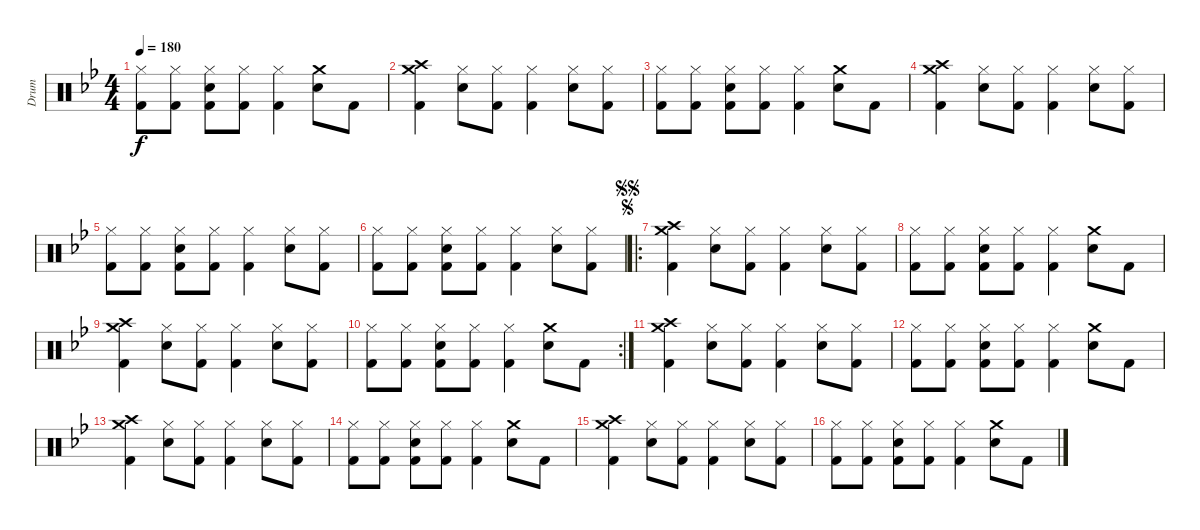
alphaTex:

\track ("Drum" "Drum") {instrument percussion}
\staff {score}
\articulation defaults
\ts (4 4)
\tempo 180
\clef neutral
\ks bb
("Hi-Hat (closed)" "Kick (hit) 2").8{dy f} ("Hi-Hat (closed)" "Kick (hit) 2").8 ("Hi-Hat (closed)" "Kick (hit) 2" "Electric Snare (hit)").8 ("Hi-Hat (closed)" "Kick (hit) 2").8 ("Hi-Hat (closed)" "Kick (hit) 2").4 ("Crash medium (hit)" "Electric Snare (hit)").8 "Kick (hit) 2".8 |
("Crash medium (hit)" "Crash high (hit)" "Kick (hit) 2").4 ("Hi-Hat (closed)" "Electric Snare (hit)").8 ("Hi-Hat (closed)" "Kick (hit) 2").8 ("Hi-Hat (closed)" "Kick (hit) 2").4 ("Hi-Hat (closed)" "Electric Snare (hit)").8 ("Hi-Hat (closed)" "Kick (hit) 2").8 |
("Hi-Hat (closed)" "Kick (hit) 2").8 ("Hi-Hat (closed)" "Kick (hit) 2").8 ("Hi-Hat (closed)" "Kick (hit) 2" "Electric Snare (hit)").8 ("Hi-Hat (closed)" "Kick (hit) 2").8 ("Hi-Hat (closed)" "Kick (hit) 2").4 ("Crash medium (hit)" "Electric Snare (hit)").8 "Kick (hit) 2".8 |
("Crash medium (hit)" "Crash high (hit)" "Kick (hit) 2").4 ("Hi-Hat (closed)" "Electric Snare (hit)").8 ("Hi-Hat (closed)" "Kick (hit) 2").8 ("Hi-Hat (closed)" "Kick (hit) 2").4 ("Hi-Hat (closed)" "Electric Snare (hit)").8 ("Hi-Hat (closed)" "Kick (hit) 2").8 |
("Hi-Hat (closed)" "Kick (hit) 2").8 ("Hi-Hat (closed)" "Kick (hit) 2").8 ("Hi-Hat (closed)" "Kick (hit) 2" "Electric Snare (hit)").8 ("Hi-Hat (closed)" "Kick (hit) 2").8 ("Hi-Hat (closed)" "Kick (hit) 2").4 ("Hi-Hat (closed)" "Electric Snare (hit)").8 ("Hi-Hat (closed)" "Kick (hit) 2").8 |
("Hi-Hat (closed)" "Kick (hit) 2").8 ("Hi-Hat (closed)" "Kick (hit) 2").8 ("Hi-Hat (closed)" "Kick (hit) 2" "Electric Snare (hit)").8 ("Hi-Hat (closed)" "Kick (hit) 2").8 ("Hi-Hat (closed)" "Kick (hit) 2").4 ("Hi-Hat (closed)" "Electric Snare (hit)").8 ("Hi-Hat (closed)" "Kick (hit) 2").8 |
\ro
\jump segno
\jump segnosegno
("Crash medium (hit)" "Crash high (hit)" "Kick (hit) 2").4 ("Hi-Hat (closed)" "Electric Snare (hit)").8 ("Hi-Hat (closed)" "Kick (hit) 2").8 ("Hi-Hat (closed)" "Kick (hit) 2").4 ("Hi-Hat (closed)" "Electric Snare (hit)").8 ("Hi-Hat (closed)" "Kick (hit) 2").8 |
("Hi-Hat (closed)" "Kick (hit) 2").8 ("Hi-Hat (closed)" "Kick (hit) 2").8 ("Hi-Hat (closed)" "Kick (hit) 2" "Electric Snare (hit)").8 ("Hi-Hat (closed)" "Kick (hit) 2").8 ("Hi-Hat (closed)" "Kick (hit) 2").4 ("Crash medium (hit)" "Electric Snare (hit)").8 "Kick (hit) 2".8 |
("Crash medium (hit)" "Crash high (hit)" "Kick (hit) 2").4 ("Hi-Hat (closed)" "Electric Snare (hit)").8 ("Hi-Hat (closed)" "Kick (hit) 2").8 ("Hi-Hat (closed)" "Kick (hit) 2").4 ("Hi-Hat (closed)" "Electric Snare (hit)").8 ("Hi-Hat (closed)" "Kick (hit) 2").8 |
\rc 2
("Hi-Hat (closed)" "Kick (hit) 2").8 ("Hi-Hat (closed)" "Kick (hit) 2").8 ("Hi-Hat (closed)" "Kick (hit) 2" "Electric Snare (hit)").8 ("Hi-Hat (closed)" "Kick (hit) 2").8 ("Hi-Hat (closed)" "Kick (hit) 2").4 ("Crash medium (hit)" "Electric Snare (hit)").8 "Kick (hit) 2".8 |
("Crash medium (hit)" "Crash high (hit)" "Kick (hit) 2").4 ("Hi-Hat (closed)" "Electric Snare (hit)").8 ("Hi-Hat (closed)" "Kick (hit) 2").8 ("Hi-Hat (closed)" "Kick (hit) 2").4 ("Hi-Hat (closed)" "Electric Snare (hit)").8 ("Hi-Hat (closed)" "Kick (hit) 2").8 |
("Hi-Hat (closed)" "Kick (hit) 2").8 ("Hi-Hat (closed)" "Kick (hit) 2").8 ("Hi-Hat (closed)" "Kick (hit) 2" "Electric Snare (hit)").8 ("Hi-Hat (closed)" "Kick (hit) 2").8 ("Hi-Hat (closed)" "Kick (hit) 2").4 ("Crash medium (hit)" "Electric Snare (hit)").8 "Kick (hit) 2".8 |
("Crash medium (hit)" "Crash high (hit)" "Kick (hit) 2").4 ("Hi-Hat (closed)" "Electric Snare (hit)").8 ("Hi-Hat (closed)" "Kick (hit) 2").8 ("Hi-Hat (closed)" "Kick (hit) 2").4 ("Hi-Hat (closed)" "Electric Snare (hit)").8 ("Hi-Hat (closed)" "Kick (hit) 2").8 |
("Hi-Hat (closed)" "Kick (hit) 2").8 ("Hi-Hat (closed)" "Kick (hit) 2").8 ("Hi-Hat (closed)" "Kick (hit) 2" "Electric Snare (hit)").8 ("Hi-Hat (closed)" "Kick (hit) 2").8 ("Hi-Hat (closed)" "Kick (hit) 2").4 ("Crash medium (hit)" "Electric Snare (hit)").8 "Kick (hit) 2".8 |
("Crash medium (hit)" "Crash high (hit)" "Kick (hit) 2").4 ("Hi-Hat (closed)" "Electric Snare (hit)").8 ("Hi-Hat (closed)" "Kick (hit) 2").8 ("Hi-Hat (closed)" "Kick (hit) 2").4 ("Hi-Hat (closed)" "Electric Snare (hit)").8 ("Hi-Hat (closed)" "Kick (hit) 2").8 |
("Hi-Hat (closed)" "Kick (hit) 2").8 ("Hi-Hat (closed)" "Kick (hit) 2").8 ("Hi-Hat (closed)" "Kick (hit) 2" "Electric Snare (hit)").8 ("Hi-Hat (closed)" "Kick (hit) 2").8 ("Hi-Hat (closed)" "Kick (hit) 2").4 ("Crash medium (hit)" "Electric Snare (hit)").8 "Kick (hit) 2".8
